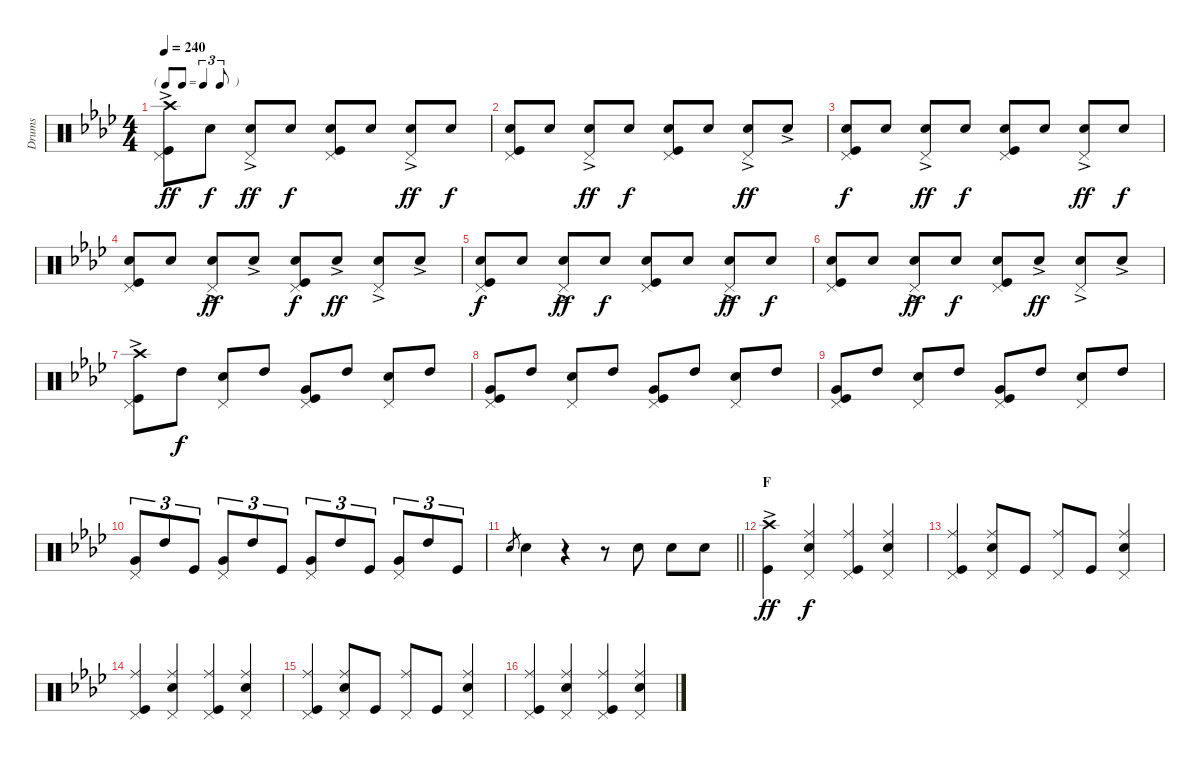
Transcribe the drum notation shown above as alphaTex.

\track ("Drums" "Drums") {instrument percussion}
\staff {score}
\articulation defaults
\ts (4 4)
\tf triplet8th
\tempo 240
\clef neutral
\ks ab
("Crash high (hit)"{ac} "Pedal Hi-Hat (hit)" "Kick (hit)").8{dy ff} "Snare (hit) 2".8{dy f} ("Pedal Hi-Hat (hit)" "Snare (hit) 2"{ac}).8{dy ff} "Snare (hit) 2".8{dy f} ("Kick (hit)" "Pedal Hi-Hat (hit)" "Snare (hit) 2").8 "Snare (hit) 2".8 ("Pedal Hi-Hat (hit)" "Snare (hit) 2"{ac}).8{dy ff} "Snare (hit) 2".8{dy f} |
("Pedal Hi-Hat (hit)" "Kick (hit)" "Snare (hit) 2").8 "Snare (hit) 2".8 ("Pedal Hi-Hat (hit)" "Snare (hit) 2"{ac}).8{dy ff} "Snare (hit) 2".8{dy f} ("Kick (hit)" "Snare (hit) 2" "Pedal Hi-Hat (hit)").8 "Snare (hit) 2".8 ("Pedal Hi-Hat (hit)" "Snare (hit) 2"{ac}).8{dy ff} "Snare (hit) 2"{ac}.8 |
("Pedal Hi-Hat (hit)" "Kick (hit)" "Snare (hit) 2").8{dy f} "Snare (hit) 2".8 ("Pedal Hi-Hat (hit)" "Snare (hit) 2"{ac}).8{dy ff} "Snare (hit) 2".8{dy f} ("Pedal Hi-Hat (hit)" "Kick (hit)" "Snare (hit) 2").8 "Snare (hit) 2".8 ("Pedal Hi-Hat (hit)" "Snare (hit) 2"{ac}).8{dy ff} "Snare (hit) 2".8{dy f} |
("Pedal Hi-Hat (hit)" "Kick (hit)" "Snare (hit) 2").8 "Snare (hit) 2".8 ("Pedal Hi-Hat (hit)" "Snare (hit) 2"{ac}).8{dy ff} "Snare (hit) 2"{ac}.8 ("Pedal Hi-Hat (hit)" "Kick (hit)" "Snare (hit) 2").8{dy f} "Snare (hit) 2"{ac}.8{dy ff} ("Pedal Hi-Hat (hit)" "Snare (hit) 2"{ac}).8 "Snare (hit) 2"{ac}.8 |
("Pedal Hi-Hat (hit)" "Kick (hit)" "Snare (hit) 2").8{dy f} "Snare (hit) 2".8 ("Pedal Hi-Hat (hit)" "Snare (hit) 2"{ac}).8{dy ff} "Snare (hit) 2".8{dy f} ("Pedal Hi-Hat (hit)" "Kick (hit)" "Snare (hit) 2").8 "Snare (hit) 2".8 ("Pedal Hi-Hat (hit)" "Snare (hit) 2"{ac}).8{dy ff} "Snare (hit) 2".8{dy f} |
("Pedal Hi-Hat (hit)" "Kick (hit)" "Snare (hit) 2").8 "Snare (hit) 2".8 ("Snare (hit) 2"{ac} "Pedal Hi-Hat (hit)").8{dy ff} "Snare (hit) 2".8{dy f} ("Pedal Hi-Hat (hit)" "Kick (hit)" "Snare (hit) 2").8 "Snare (hit) 2"{ac}.8{dy ff} ("Snare (hit) 2"{ac} "Pedal Hi-Hat (hit)").8 "Snare (hit) 2"{ac}.8 |
("Crash high (hit)"{ac} "Pedal Hi-Hat (hit)" "Kick (hit)").8 "High Tom (hit)".8{dy f} ("Pedal Hi-Hat (hit)" "Snare (hit) 2").8 "High Tom (hit)".8 ("Pedal Hi-Hat (hit)" "Kick (hit)" "Very Low Tom (hit)").8 "High Tom (hit)".8 ("Snare (hit) 2" "Pedal Hi-Hat (hit)").8 "High Tom (hit)".8 |
("Pedal Hi-Hat (hit)" "Kick (hit)" "Very Low Tom (hit)").8 "High Tom (hit)".8 ("Snare (hit) 2" "Pedal Hi-Hat (hit)").8 "High Tom (hit)".8 ("Pedal Hi-Hat (hit)" "Kick (hit)" "Very Low Tom (hit)").8 "High Tom (hit)".8 ("Pedal Hi-Hat (hit)" "Snare (hit) 2").8 "High Tom (hit)".8 |
("Pedal Hi-Hat (hit)" "Kick (hit)" "Very Low Tom (hit)").8 "High Tom (hit)".8 ("Pedal Hi-Hat (hit)" "Snare (hit) 2").8 "High Tom (hit)".8 ("Pedal Hi-Hat (hit)" "Kick (hit)" "Very Low Tom (hit)").8 "High Tom (hit)".8 ("Pedal Hi-Hat (hit)" "Snare (hit) 2").8 "High Tom (hit)".8 |
("Pedal Hi-Hat (hit)" "Very Low Tom (hit)").8{tu (3 2)} "High Tom (hit)".8{tu (3 2)} "Kick (hit)".8{tu (3 2)} ("Pedal Hi-Hat (hit)" "Very Low Tom (hit)").8{tu (3 2)} "High Tom (hit)".8{tu (3 2)} "Kick (hit)".8{tu (3 2)} ("Pedal Hi-Hat (hit)" "Very Low Tom (hit)").8{tu (3 2)} "High Tom (hit)".8{tu (3 2)} "Kick (hit)".8{tu (3 2)} ("Pedal Hi-Hat (hit)" "Very Low Tom (hit)").8{tu (3 2)} "High Tom (hit)".8{tu (3 2)} "Kick (hit)".8{tu (3 2)} |
\barLineRight lightlight "Snare (hit) 2".8{gr} "Snare (hit) 2".4
r.4 r.8 "Snare (hit) 2".8 "Snare (hit) 2".8 "Snare (hit) 2".8 |
\section ("" "F")
("Crash high (hit)"{ac} "Kick (hit)").4{dy ff} ("Ride (middle)" "Snare (hit) 2" "Pedal Hi-Hat (hit)").4{dy f} ("Ride (middle)" "Pedal Hi-Hat (hit)" "Kick (hit)").4 ("Ride (middle)" "Pedal Hi-Hat (hit)" "Snare (hit) 2").4 |
("Ride (middle)" "Pedal Hi-Hat (hit)" "Kick (hit)").4 ("Ride (middle)" "Snare (hit) 2" "Pedal Hi-Hat (hit)").8 "Kick (hit)".8 ("Ride (middle)" "Pedal Hi-Hat (hit)").8 "Kick (hit)".8 ("Snare (hit) 2" "Pedal Hi-Hat (hit)" "Ride (middle)").4 |
("Kick (hit)" "Ride (middle)" "Pedal Hi-Hat (hit)").4 ("Snare (hit) 2" "Ride (middle)" "Pedal Hi-Hat (hit)").4 ("Kick (hit)" "Ride (middle)" "Pedal Hi-Hat (hit)").4 ("Snare (hit) 2" "Ride (middle)" "Pedal Hi-Hat (hit)").4 |
("Ride (middle)" "Pedal Hi-Hat (hit)" "Kick (hit)").4 ("Ride (middle)" "Snare (hit) 2" "Pedal Hi-Hat (hit)").8 "Kick (hit)".8 ("Ride (middle)" "Pedal Hi-Hat (hit)").8 "Kick (hit)".8 ("Snare (hit) 2" "Pedal Hi-Hat (hit)" "Ride (middle)").4 |
("Kick (hit)" "Ride (middle)" "Pedal Hi-Hat (hit)").4 ("Snare (hit) 2" "Ride (middle)" "Pedal Hi-Hat (hit)").4 ("Kick (hit)" "Ride (middle)" "Pedal Hi-Hat (hit)").4 ("Snare (hit) 2" "Ride (middle)" "Pedal Hi-Hat (hit)").4
